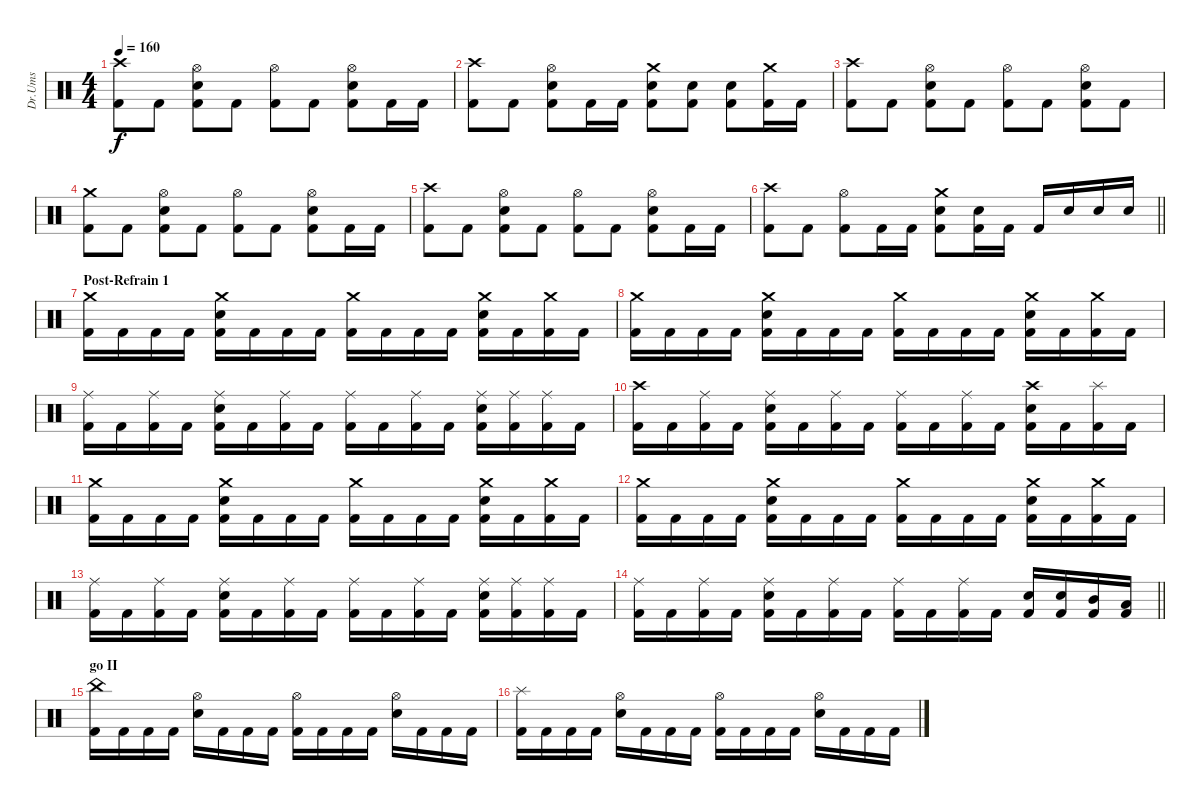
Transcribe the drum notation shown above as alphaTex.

\track ("Dr.Ums" "Dr.Ums") {instrument percussion}
\staff {score}
\articulation defaults
\ts (4 4)
\tempo 160
\clef neutral
\ks c
("Crash high (hit)" "Kick (hit) 2").8{dy f} "Kick (hit) 2".8 ("Snare (hit) 2" "Kick (hit) 2" "Hi-Hat (open)").8 "Kick (hit) 2".8 ("Kick (hit) 2" "Hi-Hat (open)").8 "Kick (hit) 2".8 ("Kick (hit) 2" "Snare (hit) 2" "Hi-Hat (open)").8 "Kick (hit) 2".16 "Kick (hit) 2".16 |
("Crash high (hit)" "Kick (hit) 2").8 "Kick (hit) 2".8 ("Hi-Hat (open)" "Kick (hit) 2" "Snare (hit) 2").8 "Kick (hit) 2".16 "Kick (hit) 2".16 ("Snare (hit) 2" "Kick (hit) 2" "Crash medium (hit)").8 ("Snare (hit) 2" "Kick (hit) 2").8 ("Kick (hit) 2" "Snare (hit) 2").8 ("Kick (hit) 2" "Crash medium (hit)").16 "Kick (hit) 2".16 |
("Crash high (hit)" "Kick (hit) 2").8 "Kick (hit) 2".8 ("Snare (hit) 2" "Kick (hit) 2" "Hi-Hat (open)").8 "Kick (hit) 2".8 ("Kick (hit) 2" "Hi-Hat (open)").8 "Kick (hit) 2".8 ("Kick (hit) 2" "Snare (hit) 2" "Hi-Hat (open)").8 "Kick (hit) 2".8 |
("Crash medium (hit)" "Kick (hit) 2").8 "Kick (hit) 2".8 ("Snare (hit) 2" "Kick (hit) 2" "Hi-Hat (open)").8 "Kick (hit) 2".8 ("Kick (hit) 2" "Hi-Hat (open)").8 "Kick (hit) 2".8 ("Kick (hit) 2" "Snare (hit) 2" "Hi-Hat (open)").8 "Kick (hit) 2".16 "Kick (hit) 2".16 |
("Crash high (hit)" "Kick (hit) 2").8 "Kick (hit) 2".8 ("Snare (hit) 2" "Kick (hit) 2" "Hi-Hat (open)").8 "Kick (hit) 2".8 ("Kick (hit) 2" "Hi-Hat (open)").8 "Kick (hit) 2".8 ("Kick (hit) 2" "Snare (hit) 2" "Hi-Hat (open)").8 "Kick (hit) 2".16 "Kick (hit) 2".16 |
\barLineRight lightlight
("Crash high (hit)" "Kick (hit) 2").8 "Kick (hit) 2".8 ("Hi-Hat (open)" "Kick (hit) 2").8 "Kick (hit) 2".16 "Kick (hit) 2".16 ("Snare (hit) 2" "Kick (hit) 2" "Crash medium (hit)").8 ("Snare (hit) 2" "Kick (hit) 2").16 "Kick (hit) 2".16 "Kick (hit) 2".16 "Snare (hit) 2".16 "Snare (hit) 2".16 "Snare (hit) 2".16 |
\section ("" "Post-Refrain 1")
("Kick (hit) 2" "Crash medium (hit)").16 "Kick (hit) 2".16 "Kick (hit) 2".16 "Kick (hit) 2".16 ("Snare (hit) 2" "Crash medium (hit)" "Kick (hit) 2").16 "Kick (hit) 2".16 "Kick (hit) 2".16 "Kick (hit) 2".16 ("Kick (hit) 2" "Crash medium (hit)").16 "Kick (hit) 2".16 "Kick (hit) 2".16 "Kick (hit) 2".16 ("Snare (hit) 2" "Crash medium (hit)" "Kick (hit) 2").16 "Kick (hit) 2".16 ("Kick (hit) 2" "Crash medium (hit)").16 "Kick (hit) 2".16 |
("Kick (hit) 2" "Crash medium (hit)").16 "Kick (hit) 2".16 "Kick (hit) 2".16 "Kick (hit) 2".16 ("Snare (hit) 2" "Crash medium (hit)" "Kick (hit) 2").16 "Kick (hit) 2".16 "Kick (hit) 2".16 "Kick (hit) 2".16 ("Kick (hit) 2" "Crash medium (hit)").16 "Kick (hit) 2".16 "Kick (hit) 2".16 "Kick (hit) 2".16 ("Snare (hit) 2" "Crash medium (hit)" "Kick (hit) 2").16 "Kick (hit) 2".16 ("Kick (hit) 2" "Crash medium (hit)").16 "Kick (hit) 2".16 |
("Kick (hit) 2" "Ride (middle)").16 "Kick (hit) 2".16 ("Kick (hit) 2" "Ride (middle)").16 "Kick (hit) 2".16 ("Snare (hit) 2" "Ride (middle)" "Kick (hit) 2").16 "Kick (hit) 2".16 ("Kick (hit) 2" "Ride (middle)").16 "Kick (hit) 2".16 ("Kick (hit) 2" "Ride (middle)").16 "Kick (hit) 2".16 ("Kick (hit) 2" "Ride (middle)").16 "Kick (hit) 2".16 ("Snare (hit) 2" "Ride (middle)" "Kick (hit) 2").16 ("Kick (hit) 2" "Ride (middle)").16 ("Kick (hit) 2" "Ride (middle)").16 "Kick (hit) 2".16 |
("Kick (hit) 2" "Crash high (hit)").16 "Kick (hit) 2".16 ("Kick (hit) 2" "Ride (middle)").16 "Kick (hit) 2".16 ("Snare (hit) 2" "Ride (middle)" "Kick (hit) 2").16 "Kick (hit) 2".16 ("Kick (hit) 2" "Ride (middle)").16 "Kick (hit) 2".16 ("Kick (hit) 2" "Ride (middle)").16 "Kick (hit) 2".16 ("Kick (hit) 2" "Ride (middle)").16 "Kick (hit) 2".16 ("Snare (hit) 2" "Crash high (hit)" "Kick (hit) 2").16 "Kick (hit) 2".16 ("Kick (hit) 2" "Splash (hit)").16 "Kick (hit) 2".16 |
("Kick (hit) 2" "Crash medium (hit)").16 "Kick (hit) 2".16 "Kick (hit) 2".16 "Kick (hit) 2".16 ("Snare (hit) 2" "Crash medium (hit)" "Kick (hit) 2").16 "Kick (hit) 2".16 "Kick (hit) 2".16 "Kick (hit) 2".16 ("Kick (hit) 2" "Crash medium (hit)").16 "Kick (hit) 2".16 "Kick (hit) 2".16 "Kick (hit) 2".16 ("Snare (hit) 2" "Crash medium (hit)" "Kick (hit) 2").16 "Kick (hit) 2".16 ("Kick (hit) 2" "Crash medium (hit)").16 "Kick (hit) 2".16 |
("Kick (hit) 2" "Crash medium (hit)").16 "Kick (hit) 2".16 "Kick (hit) 2".16 "Kick (hit) 2".16 ("Snare (hit) 2" "Crash medium (hit)" "Kick (hit) 2").16 "Kick (hit) 2".16 "Kick (hit) 2".16 "Kick (hit) 2".16 ("Kick (hit) 2" "Crash medium (hit)").16 "Kick (hit) 2".16 "Kick (hit) 2".16 "Kick (hit) 2".16 ("Snare (hit) 2" "Crash medium (hit)" "Kick (hit) 2").16 "Kick (hit) 2".16 ("Kick (hit) 2" "Crash medium (hit)").16 "Kick (hit) 2".16 |
("Kick (hit) 2" "Ride (middle)").16 "Kick (hit) 2".16 ("Kick (hit) 2" "Ride (middle)").16 "Kick (hit) 2".16 ("Snare (hit) 2" "Ride (middle)" "Kick (hit) 2").16 "Kick (hit) 2".16 ("Kick (hit) 2" "Ride (middle)").16 "Kick (hit) 2".16 ("Kick (hit) 2" "Ride (middle)").16 "Kick (hit) 2".16 ("Kick (hit) 2" "Ride (middle)").16 "Kick (hit) 2".16 ("Snare (hit) 2" "Ride (middle)" "Kick (hit) 2").16 ("Kick (hit) 2" "Ride (middle)").16 ("Kick (hit) 2" "Ride (middle)").16 "Kick (hit) 2".16 |
\barLineRight lightlight
("Kick (hit) 2" "Ride (middle)").16 "Kick (hit) 2".16 ("Kick (hit) 2" "Ride (middle)").16 "Kick (hit) 2".16 ("Snare (hit) 2" "Ride (middle)" "Kick (hit) 2").16 "Kick (hit) 2".16 ("Kick (hit) 2" "Ride (middle)").16 "Kick (hit) 2".16 ("Kick (hit) 2" "Ride (middle)").16 "Kick (hit) 2".16 ("Kick (hit) 2" "Ride (middle)").16 "Kick (hit) 2".16 ("Snare (hit) 2" "Kick (hit) 2").16 ("Snare (hit) 2" "Kick (hit) 2").16 ("Kick (hit) 2" "Mid Tom (hit)").16 ("Kick (hit) 2" "Low Tom (hit)").16 |
\section ("" "go II")
("Kick (hit) 2" "China (hit)").16 "Kick (hit) 2".16 "Kick (hit) 2".16 "Kick (hit) 2".16 ("Snare (hit) 2" "Hi-Hat (open)").16 "Kick (hit) 2".16 "Kick (hit) 2".16 "Kick (hit) 2".16 ("Kick (hit) 2" "Hi-Hat (open)").16 "Kick (hit) 2".16 "Kick (hit) 2".16 "Kick (hit) 2".16 ("Snare (hit) 2" "Hi-Hat (open)").16 "Kick (hit) 2".16 "Kick (hit) 2".16 "Kick (hit) 2".16 |
("Kick (hit) 2" "Splash (hit)").16 "Kick (hit) 2".16 "Kick (hit) 2".16 "Kick (hit) 2".16 ("Snare (hit) 2" "Hi-Hat (open)").16 "Kick (hit) 2".16 "Kick (hit) 2".16 "Kick (hit) 2".16 ("Kick (hit) 2" "Hi-Hat (open)").16 "Kick (hit) 2".16 "Kick (hit) 2".16 "Kick (hit) 2".16 ("Snare (hit) 2" "Hi-Hat (open)").16 "Kick (hit) 2".16 "Kick (hit) 2".16 "Kick (hit) 2".16
